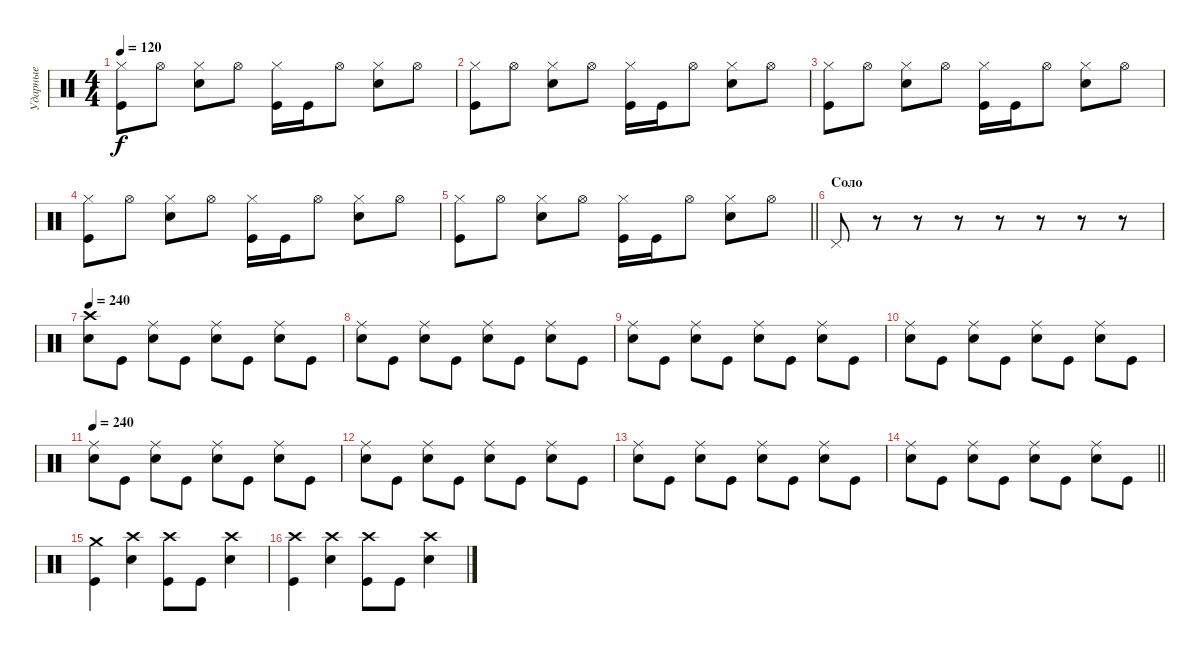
\track ("Ударные" "Ударные") {instrument percussion}
\staff {score}
\articulation defaults
\ts (4 4)
\tempo 120
\clef neutral
\ks c
("Hi-Hat (closed)" "Kick (hit)").8{dy f} "Hi-Hat (open)".8 ("Hi-Hat (closed)" "Electric Snare (hit)").8 "Hi-Hat (open)".8 ("Hi-Hat (closed)" "Kick (hit)").16 "Kick (hit)".16 "Hi-Hat (open)".8 ("Hi-Hat (closed)" "Electric Snare (hit)").8 "Hi-Hat (open)".8 |
("Hi-Hat (closed)" "Kick (hit)").8 "Hi-Hat (open)".8 ("Hi-Hat (closed)" "Electric Snare (hit)").8 "Hi-Hat (open)".8 ("Hi-Hat (closed)" "Kick (hit)").16 "Kick (hit)".16 "Hi-Hat (open)".8 ("Hi-Hat (closed)" "Electric Snare (hit)").8 "Hi-Hat (open)".8 |
("Hi-Hat (closed)" "Kick (hit)").8 "Hi-Hat (open)".8 ("Hi-Hat (closed)" "Electric Snare (hit)").8 "Hi-Hat (open)".8 ("Hi-Hat (closed)" "Kick (hit)").16 "Kick (hit)".16 "Hi-Hat (open)".8 ("Hi-Hat (closed)" "Electric Snare (hit)").8 "Hi-Hat (open)".8 |
("Hi-Hat (closed)" "Kick (hit)").8 "Hi-Hat (open)".8 ("Hi-Hat (closed)" "Electric Snare (hit)").8 "Hi-Hat (open)".8 ("Hi-Hat (closed)" "Kick (hit)").16 "Kick (hit)".16 "Hi-Hat (open)".8 ("Hi-Hat (closed)" "Electric Snare (hit)").8 "Hi-Hat (open)".8 |
\barLineRight lightlight
("Hi-Hat (closed)" "Kick (hit)").8 "Hi-Hat (open)".8 ("Hi-Hat (closed)" "Electric Snare (hit)").8 "Hi-Hat (open)".8 ("Hi-Hat (closed)" "Kick (hit)").16 "Kick (hit)".16 "Hi-Hat (open)".8 ("Hi-Hat (closed)" "Electric Snare (hit)").8 "Hi-Hat (open)".8 |
\section ("" "Соло")
"Pedal Hi-Hat (hit)".8 r.8 r.8 r.8 r.8 r.8 r.8 r.8 |
\tempo 240
("Crash high (hit)" "Electric Snare (hit)").8 "Kick (hit)".8 ("Ride (middle)" "Electric Snare (hit)").8 "Kick (hit)".8 ("Ride (middle)" "Electric Snare (hit)").8 "Kick (hit)".8 ("Ride (middle)" "Electric Snare (hit)").8 "Kick (hit)".8 |
("Ride (middle)" "Electric Snare (hit)").8 "Kick (hit)".8 ("Ride (middle)" "Electric Snare (hit)").8 "Kick (hit)".8 ("Ride (middle)" "Electric Snare (hit)").8 "Kick (hit)".8 ("Ride (middle)" "Electric Snare (hit)").8 "Kick (hit)".8 |
("Ride (middle)" "Electric Snare (hit)").8 "Kick (hit)".8 ("Ride (middle)" "Electric Snare (hit)").8 "Kick (hit)".8 ("Ride (middle)" "Electric Snare (hit)").8 "Kick (hit)".8 ("Ride (middle)" "Electric Snare (hit)").8 "Kick (hit)".8 |
("Ride (middle)" "Electric Snare (hit)").8 "Kick (hit)".8 ("Ride (middle)" "Electric Snare (hit)").8 "Kick (hit)".8 ("Ride (middle)" "Electric Snare (hit)").8 "Kick (hit)".8 ("Ride (middle)" "Electric Snare (hit)").8 "Kick (hit)".8 |
\tempo 240
("Ride (middle)" "Electric Snare (hit)").8 "Kick (hit)".8 ("Ride (middle)" "Electric Snare (hit)").8 "Kick (hit)".8 ("Ride (middle)" "Electric Snare (hit)").8 "Kick (hit)".8 ("Ride (middle)" "Electric Snare (hit)").8 "Kick (hit)".8 |
("Ride (middle)" "Electric Snare (hit)").8 "Kick (hit)".8 ("Ride (middle)" "Electric Snare (hit)").8 "Kick (hit)".8 ("Ride (middle)" "Electric Snare (hit)").8 "Kick (hit)".8 ("Ride (middle)" "Electric Snare (hit)").8 "Kick (hit)".8 |
("Ride (middle)" "Electric Snare (hit)").8 "Kick (hit)".8 ("Ride (middle)" "Electric Snare (hit)").8 "Kick (hit)".8 ("Ride (middle)" "Electric Snare (hit)").8 "Kick (hit)".8 ("Ride (middle)" "Electric Snare (hit)").8 "Kick (hit)".8 |
\barLineRight lightlight
("Ride (middle)" "Electric Snare (hit)").8 "Kick (hit)".8 ("Ride (middle)" "Electric Snare (hit)").8 "Kick (hit)".8 ("Ride (middle)" "Electric Snare (hit)").8 "Kick (hit)".8 ("Ride (middle)" "Electric Snare (hit)").8 "Kick (hit)".8 |
\section ("" " ")
("Crash medium (hit)" "Kick (hit)").4 ("Crash high (hit)" "Electric Snare (hit)").4 ("Crash high (hit)" "Kick (hit)").8 "Kick (hit)".8 ("Crash high (hit)" "Electric Snare (hit)").4 |
("Crash high (hit)" "Kick (hit)").4 ("Crash high (hit)" "Electric Snare (hit)").4 ("Crash high (hit)" "Kick (hit)").8 "Kick (hit)".8 ("Crash high (hit)" "Electric Snare (hit)").4
